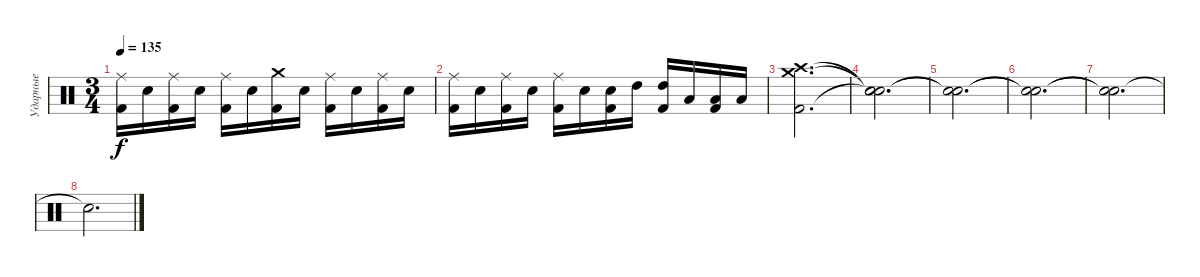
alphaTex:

\track ("Ударные" "Ударные") {instrument percussion}
\staff {score}
\articulation defaults
\ts (3 4)
\tempo 135
\clef neutral
\ks c
("Ride (middle)" "Kick (hit) 2").16{dy f} "Electric Snare (hit)".16 ("Ride (middle)" "Kick (hit) 2").16 "Electric Snare (hit)".16 ("Ride (middle)" "Kick (hit) 2").16 "Electric Snare (hit)".16 ("Crash medium (hit)" "Kick (hit) 2").16 "Electric Snare (hit)".16 ("Ride (middle)" "Kick (hit) 2").16 "Electric Snare (hit)".16 ("Ride (middle)" "Kick (hit) 2").16 "Electric Snare (hit)".16 |
("Ride (middle)" "Kick (hit) 2").16 "Electric Snare (hit)".16 ("Ride (middle)" "Kick (hit) 2").16 "Electric Snare (hit)".16 ("Ride (middle)" "Kick (hit) 2").16 "Electric Snare (hit)".16 ("Electric Snare (hit)" "Kick (hit) 2").16 "High Tom (hit)".16 ("High Tom (hit)" "Kick (hit) 2").16 "Low Tom (hit)".16 ("Low Tom (hit)" "Kick (hit) 2").16 "Low Tom (hit)".16 |
("Crash high (hit)" "Crash medium (hit)" "Kick (hit) 2").2{d} |
("Snare (hit)"{t} "Snare (hit)"{t} "Snare (hit)"{t}).2{d} |
("Snare (hit)"{t} "Snare (hit)"{t}).2{d} |
("Snare (hit)"{t} "Snare (hit)"{t}).2{d} |
("Snare (hit)"{t} "Snare (hit)"{t}).2{d} |
"Snare (hit)"{t}.2{d}
